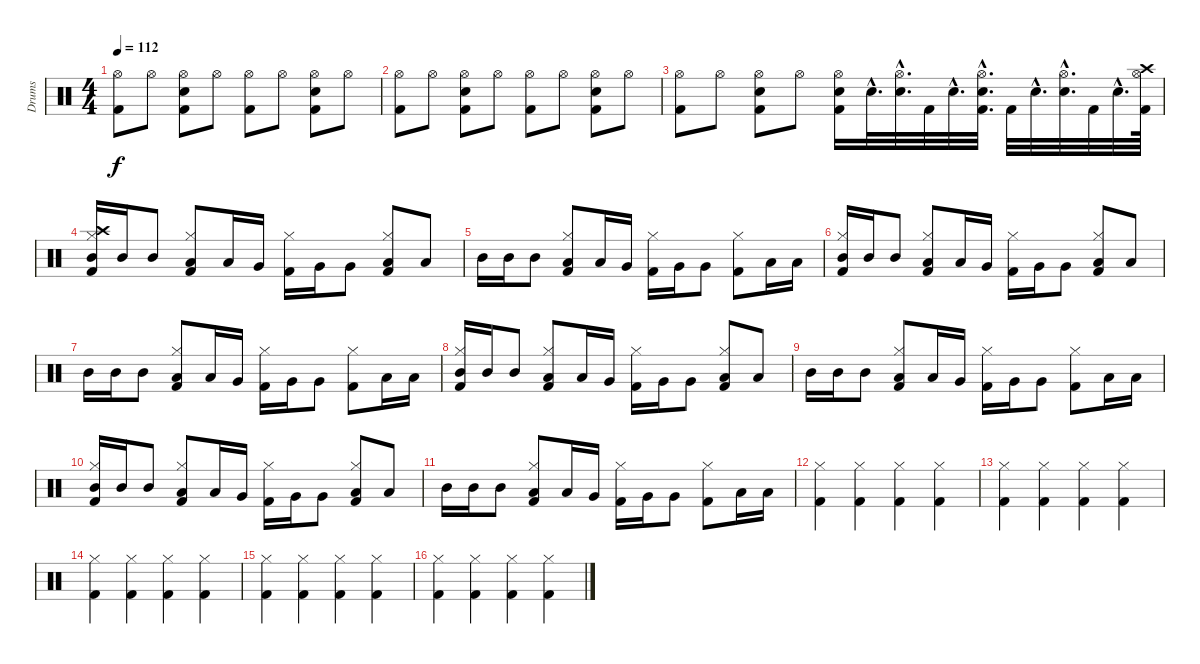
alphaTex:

\track ("Drums" "Drums") {instrument percussion}
\staff {score}
\articulation defaults
\ts (4 4)
\tempo 112
\clef neutral
\ks c
("Hi-Hat (open)" "Kick (hit) 2").8{dy f} "Hi-Hat (open)".8 ("Hi-Hat (open)" "Kick (hit) 2" "Snare (hit) 2").8 "Hi-Hat (open)".8 ("Kick (hit) 2" "Hi-Hat (open)").8 "Hi-Hat (open)".8 ("Kick (hit) 2" "Snare (hit) 2" "Hi-Hat (open)").8 "Hi-Hat (open)".8 |
("Hi-Hat (open)" "Kick (hit) 2").8 "Hi-Hat (open)".8 ("Hi-Hat (open)" "Kick (hit) 2" "Snare (hit) 2").8 "Hi-Hat (open)".8 ("Kick (hit) 2" "Hi-Hat (open)").8 "Hi-Hat (open)".8 ("Kick (hit) 2" "Snare (hit) 2" "Hi-Hat (open)").8 "Hi-Hat (open)".8 |
("Hi-Hat (open)" "Kick (hit) 2").8 "Hi-Hat (open)".8 ("Kick (hit) 2" "Snare (hit) 2" "Hi-Hat (open)").8 "Hi-Hat (open)".8 ("Hi-Hat (open)" "Kick (hit) 2" "Snare (hit) 2").16 "Snare (hit) 2"{hac}.32{d} ("Hi-Hat (open)"{hac} "Snare (hit) 2"{hac}).32{d} "Kick (hit) 2".32 "Snare (hit) 2"{hac}.32{d} ("Hi-Hat (open)"{hac} "Snare (hit) 2"{hac} "Kick (hit) 2"{hac}).32{d} "Kick (hit) 2".32 "Snare (hit) 2"{hac}.32{d} ("Snare (hit) 2"{hac} "Hi-Hat (open)"{hac}).32{d} "Kick (hit) 2".32 "Snare (hit) 2"{hac}.32{d} ("Hi-Hat (open)" "Kick (hit) 2" "Crash high (hit)").64 |
("Crash high (hit)" "Hi-Hat (closed)" "Mid Tom (hit)" "Kick (hit) 2").16 "Mid Tom (hit)".16 "Mid Tom (hit)".8 ("Kick (hit) 2" "Hi-Hat (closed)" "Low Tom (hit)").8 "Low Tom (hit)".16 "Very Low Tom (hit)".16 ("Kick (hit) 2" "Hi-Hat (closed)").16 "Very Low Tom (hit)".16 "Very Low Tom (hit)".8 ("Hi-Hat (closed)" "Kick (hit) 2" "Low Floor Tom (hit)").8 "Low Floor Tom (hit)".8 |
"Mid Tom (hit)".16 "Mid Tom (hit)".16 "Mid Tom (hit)".8 ("Hi-Hat (closed)" "Kick (hit) 2" "Low Tom (hit)").8 "Low Tom (hit)".16 "Very Low Tom (hit)".16 ("Kick (hit) 2" "Hi-Hat (closed)").16 "Very Low Tom (hit)".16 "Very Low Tom (hit)".8 ("Kick (hit) 2" "Hi-Hat (closed)").8 "Low Floor Tom (hit)".16 "Low Floor Tom (hit)".16 |
("Hi-Hat (closed)" "Kick (hit) 2" "Mid Tom (hit)").16 "Mid Tom (hit)".16 "Mid Tom (hit)".8 ("Hi-Hat (closed)" "Low Tom (hit)" "Kick (hit) 2").8 "Low Tom (hit)".16 "Very Low Tom (hit)".16 ("Kick (hit) 2" "Hi-Hat (closed)").16 "Very Low Tom (hit)".16 "Very Low Tom (hit)".8 ("Low Floor Tom (hit)" "Kick (hit) 2" "Hi-Hat (closed)").8 "Low Floor Tom (hit)".8 |
"Mid Tom (hit)".16 "Mid Tom (hit)".16 "Mid Tom (hit)".8 ("Hi-Hat (closed)" "Kick (hit) 2" "Low Tom (hit)").8 "Low Tom (hit)".16 "Very Low Tom (hit)".16 ("Kick (hit) 2" "Hi-Hat (closed)").16 "Very Low Tom (hit)".16 "Very Low Tom (hit)".8 ("Kick (hit) 2" "Hi-Hat (closed)").8 "Low Floor Tom (hit)".16 "Low Floor Tom (hit)".16 |
("Hi-Hat (closed)" "Kick (hit) 2" "Mid Tom (hit)").16 "Mid Tom (hit)".16 "Mid Tom (hit)".8 ("Hi-Hat (closed)" "Low Tom (hit)" "Kick (hit) 2").8 "Low Tom (hit)".16 "Very Low Tom (hit)".16 ("Kick (hit) 2" "Hi-Hat (closed)").16 "Very Low Tom (hit)".16 "Very Low Tom (hit)".8 ("Low Floor Tom (hit)" "Kick (hit) 2" "Hi-Hat (closed)").8 "Low Floor Tom (hit)".8 |
"Mid Tom (hit)".16 "Mid Tom (hit)".16 "Mid Tom (hit)".8 ("Hi-Hat (closed)" "Kick (hit) 2" "Low Tom (hit)").8 "Low Tom (hit)".16 "Very Low Tom (hit)".16 ("Kick (hit) 2" "Hi-Hat (closed)").16 "Very Low Tom (hit)".16 "Very Low Tom (hit)".8 ("Kick (hit) 2" "Hi-Hat (closed)").8 "Low Floor Tom (hit)".16 "Low Floor Tom (hit)".16 |
("Hi-Hat (closed)" "Kick (hit) 2" "Mid Tom (hit)").16 "Mid Tom (hit)".16 "Mid Tom (hit)".8 ("Hi-Hat (closed)" "Low Tom (hit)" "Kick (hit) 2").8 "Low Tom (hit)".16 "Very Low Tom (hit)".16 ("Kick (hit) 2" "Hi-Hat (closed)").16 "Very Low Tom (hit)".16 "Very Low Tom (hit)".8 ("Low Floor Tom (hit)" "Kick (hit) 2" "Hi-Hat (closed)").8 "Low Floor Tom (hit)".8 |
"Mid Tom (hit)".16 "Mid Tom (hit)".16 "Mid Tom (hit)".8 ("Hi-Hat (closed)" "Kick (hit) 2" "Low Tom (hit)").8 "Low Tom (hit)".16 "Very Low Tom (hit)".16 ("Kick (hit) 2" "Hi-Hat (closed)").16 "Very Low Tom (hit)".16 "Very Low Tom (hit)".8 ("Kick (hit) 2" "Hi-Hat (closed)").8 "Low Floor Tom (hit)".16 "Low Floor Tom (hit)".16 |
("Kick (hit) 2" "Hi-Hat (closed)").4 ("Hi-Hat (closed)" "Kick (hit) 2").4 ("Kick (hit) 2" "Hi-Hat (closed)").4 ("Hi-Hat (closed)" "Kick (hit) 2").4 |
("Kick (hit) 2" "Hi-Hat (closed)").4 ("Hi-Hat (closed)" "Kick (hit) 2").4 ("Kick (hit) 2" "Hi-Hat (closed)").4 ("Hi-Hat (closed)" "Kick (hit) 2").4 |
("Kick (hit) 2" "Hi-Hat (closed)").4 ("Hi-Hat (closed)" "Kick (hit) 2").4 ("Kick (hit) 2" "Hi-Hat (closed)").4 ("Hi-Hat (closed)" "Kick (hit) 2").4 |
("Kick (hit) 2" "Hi-Hat (closed)").4 ("Hi-Hat (closed)" "Kick (hit) 2").4 ("Kick (hit) 2" "Hi-Hat (closed)").4 ("Hi-Hat (closed)" "Kick (hit) 2").4 |
("Kick (hit) 2" "Hi-Hat (closed)").4 ("Hi-Hat (closed)" "Kick (hit) 2").4 ("Kick (hit) 2" "Hi-Hat (closed)").4 ("Hi-Hat (closed)" "Kick (hit) 2").4
